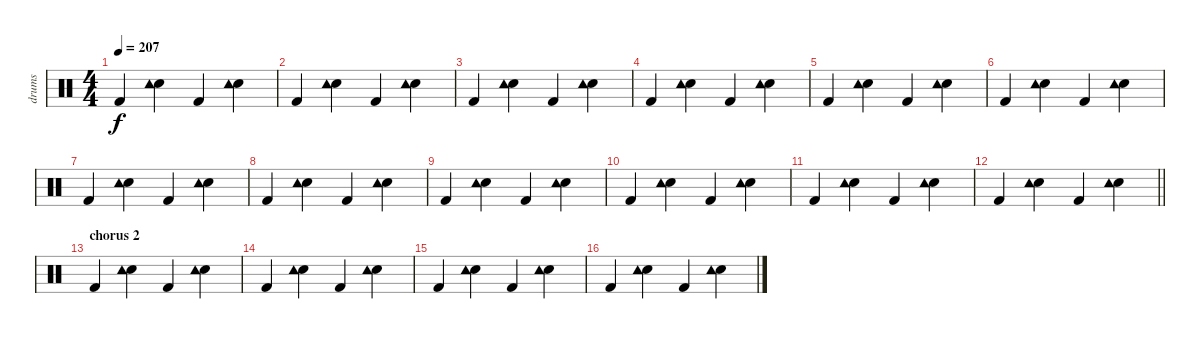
\track ("drums" "drums") {instrument percussion}
\staff {score}
\articulation defaults
\ts (4 4)
\tempo 207
\clef neutral
\ks c "Kick (hit) 2".4{dy f}
("Electric Snare (hit)" "Tambourine (hit)").4 "Kick (hit) 2".4 ("Electric Snare (hit)" "Tambourine (hit)").4 |
"Kick (hit) 2".4 ("Electric Snare (hit)" "Tambourine (hit)").4 "Kick (hit) 2".4 ("Electric Snare (hit)" "Tambourine (hit)").4 |
"Kick (hit) 2".4 ("Electric Snare (hit)" "Tambourine (hit)").4 "Kick (hit) 2".4 ("Electric Snare (hit)" "Tambourine (hit)").4 |
"Kick (hit) 2".4 ("Electric Snare (hit)" "Tambourine (hit)").4 "Kick (hit) 2".4 ("Electric Snare (hit)" "Tambourine (hit)").4 |
"Kick (hit) 2".4 ("Electric Snare (hit)" "Tambourine (hit)").4 "Kick (hit) 2".4 ("Electric Snare (hit)" "Tambourine (hit)").4 |
"Kick (hit) 2".4 ("Electric Snare (hit)" "Tambourine (hit)").4 "Kick (hit) 2".4 ("Electric Snare (hit)" "Tambourine (hit)").4 |
"Kick (hit) 2".4 ("Electric Snare (hit)" "Tambourine (hit)").4 "Kick (hit) 2".4 ("Electric Snare (hit)" "Tambourine (hit)").4 |
"Kick (hit) 2".4 ("Electric Snare (hit)" "Tambourine (hit)").4 "Kick (hit) 2".4 ("Electric Snare (hit)" "Tambourine (hit)").4 |
"Kick (hit) 2".4 ("Electric Snare (hit)" "Tambourine (hit)").4 "Kick (hit) 2".4 ("Electric Snare (hit)" "Tambourine (hit)").4 |
"Kick (hit) 2".4 ("Electric Snare (hit)" "Tambourine (hit)").4 "Kick (hit) 2".4 ("Electric Snare (hit)" "Tambourine (hit)").4 |
"Kick (hit) 2".4 ("Electric Snare (hit)" "Tambourine (hit)").4 "Kick (hit) 2".4 ("Electric Snare (hit)" "Tambourine (hit)").4 |
\barLineRight lightlight "Kick (hit) 2".4
("Electric Snare (hit)" "Tambourine (hit)").4 "Kick (hit) 2".4 ("Electric Snare (hit)" "Tambourine (hit)").4 |
\section ("" "chorus 2")
"Kick (hit) 2".4 ("Electric Snare (hit)" "Tambourine (hit)").4 "Kick (hit) 2".4 ("Electric Snare (hit)" "Tambourine (hit)").4 |
"Kick (hit) 2".4 ("Electric Snare (hit)" "Tambourine (hit)").4 "Kick (hit) 2".4 ("Electric Snare (hit)" "Tambourine (hit)").4 |
"Kick (hit) 2".4 ("Electric Snare (hit)" "Tambourine (hit)").4 "Kick (hit) 2".4 ("Electric Snare (hit)" "Tambourine (hit)").4 |
"Kick (hit) 2".4 ("Electric Snare (hit)" "Tambourine (hit)").4 "Kick (hit) 2".4 ("Electric Snare (hit)" "Tambourine (hit)").4
